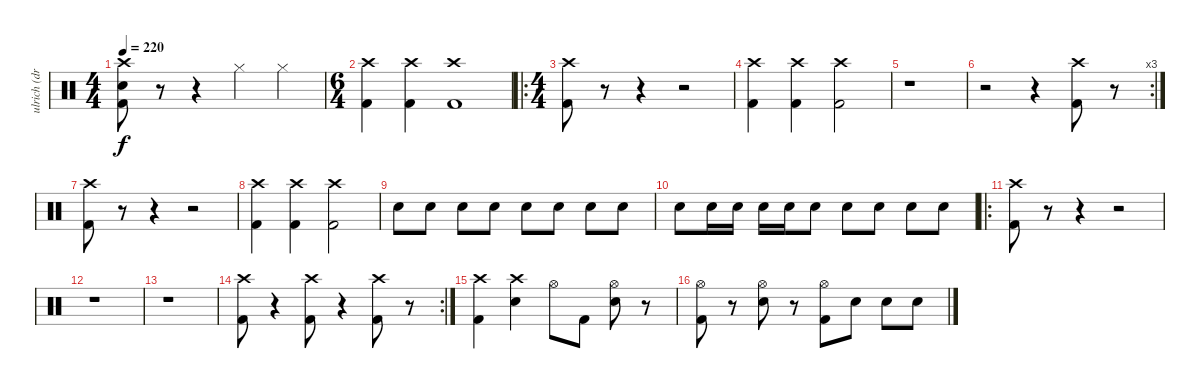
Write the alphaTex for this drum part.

\track ("ulrich (drums)" "ulrich (dr") {instrument percussion}
\staff {score}
\articulation defaults
\ts (4 4)
\tempo 220
\clef neutral
\ks c
("Crash high (hit)" "Snare (hit) 2" "Kick (hit) 2").8{dy f} r.8 r.4 "Hi-Hat (closed)".4 "Hi-Hat (closed)".4 |
\ts (6 4)
("Crash high (hit)" "Kick (hit) 2").4 ("Crash high (hit)" "Kick (hit) 2").4 ("Crash high (hit)" "Kick (hit) 2").1 |
\ro
\ts (4 4)
("Crash high (hit)" "Kick (hit) 2").8 r.8 r.4 r.2 |
("Crash high (hit)" "Kick (hit) 2").4 ("Crash high (hit)" "Kick (hit) 2").4 ("Crash high (hit)" "Kick (hit) 2").2 |
r.1 |
\rc 3
r.2 r.4 ("Crash high (hit)" "Kick (hit) 2").8 r.8 |
("Crash high (hit)" "Kick (hit) 2").8 r.8 r.4 r.2 |
("Crash high (hit)" "Kick (hit) 2").4 ("Crash high (hit)" "Kick (hit) 2").4 ("Crash high (hit)" "Kick (hit) 2").2 |
"Snare (hit) 2".8 "Snare (hit) 2".8 "Snare (hit) 2".8 "Snare (hit) 2".8 "Snare (hit) 2".8 "Snare (hit) 2".8 "Snare (hit) 2".8 "Snare (hit) 2".8 |
"Snare (hit) 2".8 "Snare (hit) 2".16 "Snare (hit) 2".16 "Snare (hit) 2".16 "Snare (hit) 2".16 "Snare (hit) 2".8 "Snare (hit) 2".8 "Snare (hit) 2".8 "Snare (hit) 2".8 "Snare (hit) 2".8 |
\ro
("Crash high (hit)" "Kick (hit) 2").8 r.8 r.4 r.2 |
r.1 |
r.1 |
\rc 2
("Crash high (hit)" "Kick (hit) 2").8 r.4 ("Crash high (hit)" "Kick (hit) 2").8 r.4 ("Crash high (hit)" "Kick (hit) 2").8 r.8 |
("Crash high (hit)" "Kick (hit) 2").4 ("Crash high (hit)" "Snare (hit) 2").4 "Hi-Hat (open)".8 "Kick (hit) 2".8 ("Hi-Hat (open)" "Snare (hit) 2").8 r.8 |
("Hi-Hat (open)" "Kick (hit) 2").8 r.8 ("Hi-Hat (open)" "Snare (hit) 2").8 r.8 ("Hi-Hat (open)" "Kick (hit) 2").8 "Snare (hit) 2".8 "Snare (hit) 2".8 "Snare (hit) 2".8
